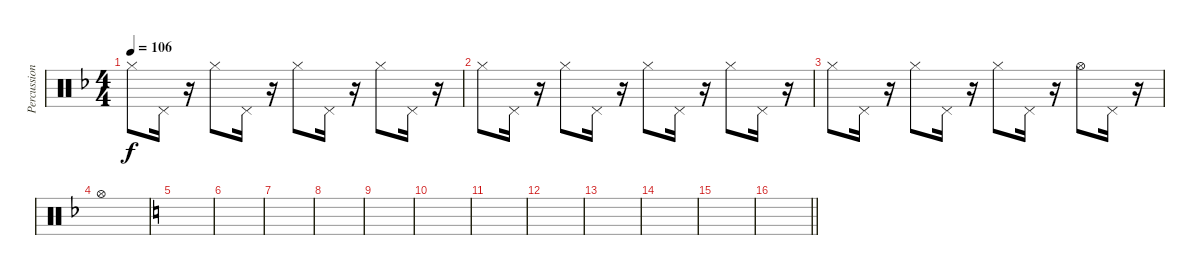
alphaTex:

\track ("Percussions" "Percussion") {instrument percussion}
\staff {score}
\articulation defaults
\ts (4 4)
\tempo 106
\clef neutral
\ks f "Hi-Hat (closed)".8{dy f} "Pedal Hi-Hat (hit)".16
r.16 "Hi-Hat (closed)".8 "Pedal Hi-Hat (hit)".16 r.16 "Hi-Hat (closed)".8 "Pedal Hi-Hat (hit)".16 r.16 "Hi-Hat (closed)".8 "Pedal Hi-Hat (hit)".16 r.16 |
"Hi-Hat (closed)".8 "Pedal Hi-Hat (hit)".16 r.16 "Hi-Hat (closed)".8 "Pedal Hi-Hat (hit)".16 r.16 "Hi-Hat (closed)".8 "Pedal Hi-Hat (hit)".16 r.16 "Hi-Hat (closed)".8 "Pedal Hi-Hat (hit)".16 r.16 |
"Hi-Hat (closed)".8 "Pedal Hi-Hat (hit)".16 r.16 "Hi-Hat (closed)".8 "Pedal Hi-Hat (hit)".16 r.16 "Hi-Hat (closed)".8 "Pedal Hi-Hat (hit)".16 r.16 "Hi-Hat (open)".8 "Pedal Hi-Hat (hit)".16 r.16 |
"Hi-Hat (open)".1 |
\ks c
|
|
|
|
|
|
|
|
|
|
|
\barLineRight lightlight
